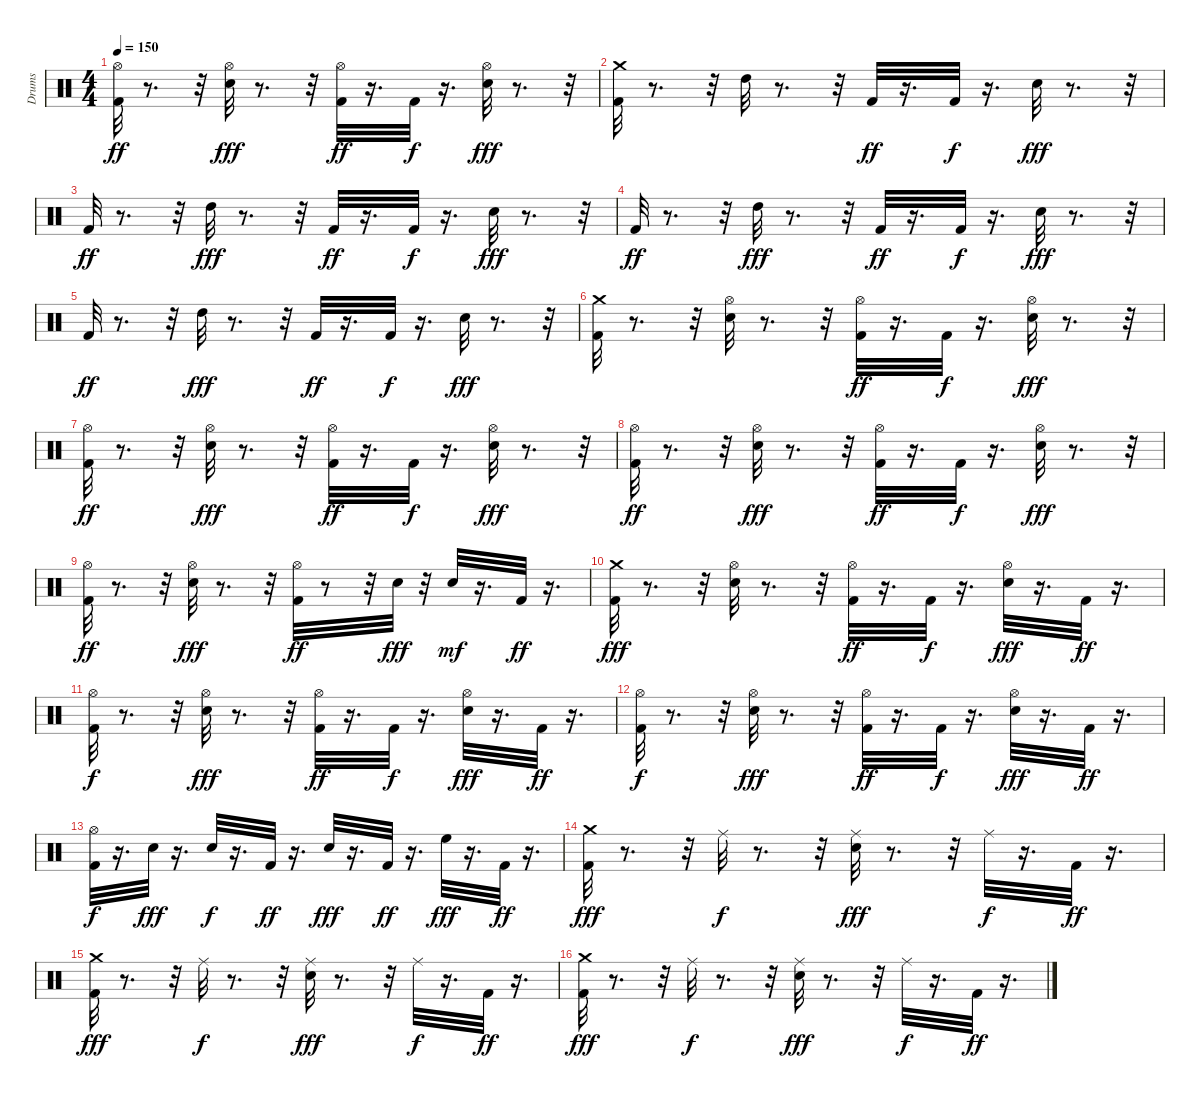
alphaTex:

\track ("Drums" "Drums") {instrument percussion}
\staff {score}
\articulation defaults
\ts (4 4)
\tempo 150
\clef neutral
\ks c
("Kick (hit) 2" "Hi-Hat (open)").32{dy ff} r.8{d} r.32 ("Snare (hit) 2" "Hi-Hat (open)").32{dy fff} r.8{d} r.32 ("Kick (hit) 2" "Hi-Hat (open)").32{dy ff} r.16{d} "Kick (hit) 2".32{dy f} r.16{d} ("Snare (hit) 2" "Hi-Hat (open)").32{dy fff} r.8{d} r.32 |
("Kick (hit) 2" "Crash medium (hit)").32 r.8{d} r.32 "High Tom (hit)".32 r.8{d} r.32 "Kick (hit) 2".32{dy ff} r.16{d} "Kick (hit) 2".32{dy f} r.16{d} "Snare (hit) 2".32{dy fff} r.8{d} r.32 |
"Kick (hit) 2".32{dy ff} r.8{d} r.32 "High Tom (hit)".32{dy fff} r.8{d} r.32 "Kick (hit) 2".32{dy ff} r.16{d} "Kick (hit) 2".32{dy f} r.16{d} "Snare (hit) 2".32{dy fff} r.8{d} r.32 |
"Kick (hit) 2".32{dy ff} r.8{d} r.32 "High Tom (hit)".32{dy fff} r.8{d} r.32 "Kick (hit) 2".32{dy ff} r.16{d} "Kick (hit) 2".32{dy f} r.16{d} "Snare (hit) 2".32{dy fff} r.8{d} r.32 |
"Kick (hit) 2".32{dy ff} r.8{d} r.32 "High Tom (hit)".32{dy fff} r.8{d} r.32 "Kick (hit) 2".32{dy ff} r.16{d} "Kick (hit) 2".32{dy f} r.16{d} "Snare (hit) 2".32{dy fff} r.8{d} r.32 |
("Kick (hit) 2" "Crash medium (hit)").32 r.8{d} r.32 ("Snare (hit) 2" "Hi-Hat (open)").32 r.8{d} r.32 ("Kick (hit) 2" "Hi-Hat (open)").32{dy ff} r.16{d} "Kick (hit) 2".32{dy f} r.16{d} ("Snare (hit) 2" "Hi-Hat (open)").32{dy fff} r.8{d} r.32 |
("Kick (hit) 2" "Hi-Hat (open)").32{dy ff} r.8{d} r.32 ("Snare (hit) 2" "Hi-Hat (open)").32{dy fff} r.8{d} r.32 ("Kick (hit) 2" "Hi-Hat (open)").32{dy ff} r.16{d} "Kick (hit) 2".32{dy f} r.16{d} ("Snare (hit) 2" "Hi-Hat (open)").32{dy fff} r.8{d} r.32 |
("Kick (hit) 2" "Hi-Hat (open)").32{dy ff} r.8{d} r.32 ("Snare (hit) 2" "Hi-Hat (open)").32{dy fff} r.8{d} r.32 ("Kick (hit) 2" "Hi-Hat (open)").32{dy ff} r.16{d} "Kick (hit) 2".32{dy f} r.16{d} ("Snare (hit) 2" "Hi-Hat (open)").32{dy fff} r.8{d} r.32 |
("Kick (hit) 2" "Hi-Hat (open)").32{dy ff} r.8{d} r.32 ("Snare (hit) 2" "Hi-Hat (open)").32{dy fff} r.8{d} r.32 ("Kick (hit) 2" "Hi-Hat (open)").32{dy ff} r.8 r.32 "Snare (hit) 2".32{dy fff} r.32 "Snare (hit) 2".32{dy mf} r.16{d} "Kick (hit) 2".32{dy ff} r.16{d} |
("Kick (hit) 2" "Crash medium (hit)").32{dy fff} r.8{d} r.32 ("Snare (hit) 2" "Hi-Hat (open)").32 r.8{d} r.32 ("Kick (hit) 2" "Hi-Hat (open)").32{dy ff} r.16{d} "Kick (hit) 2".32{dy f} r.16{d} ("Snare (hit) 2" "Hi-Hat (open)").32{dy fff} r.16{d} "Kick (hit) 2".32{dy ff} r.16{d} |
("Kick (hit) 2" "Hi-Hat (open)").32{dy f} r.8{d} r.32 ("Snare (hit) 2" "Hi-Hat (open)").32{dy fff} r.8{d} r.32 ("Kick (hit) 2" "Hi-Hat (open)").32{dy ff} r.16{d} "Kick (hit) 2".32{dy f} r.16{d} ("Snare (hit) 2" "Hi-Hat (open)").32{dy fff} r.16{d} "Kick (hit) 2".32{dy ff} r.16{d} |
("Kick (hit) 2" "Hi-Hat (open)").32{dy f} r.8{d} r.32 ("Snare (hit) 2" "Hi-Hat (open)").32{dy fff} r.8{d} r.32 ("Kick (hit) 2" "Hi-Hat (open)").32{dy ff} r.16{d} "Kick (hit) 2".32{dy f} r.16{d} ("Snare (hit) 2" "Hi-Hat (open)").32{dy fff} r.16{d} "Kick (hit) 2".32{dy ff} r.16{d} |
("Kick (hit) 2" "Hi-Hat (open)").32{dy f} r.16{d} "Snare (hit) 2".32{dy fff} r.16{d} "Snare (hit) 2".32{dy f} r.16{d} "Kick (hit) 2".32{dy ff} r.16{d} "Snare (hit) 2".32{dy fff} r.16{d} "Kick (hit) 2".32{dy ff} r.16{d} "High Floor Tom (hit)".32{dy fff} r.16{d} "Kick (hit) 2".32{dy ff} r.16{d} |
("Kick (hit) 2" "Crash medium (hit)").32{dy fff} r.8{d} r.32 "Ride (middle)".32{dy f} r.8{d} r.32 ("Snare (hit) 2" "Ride (middle)").32{dy fff} r.8{d} r.32 "Ride (middle)".32{dy f} r.16{d} "Kick (hit) 2".32{dy ff} r.16{d} |
("Kick (hit) 2" "Crash medium (hit)").32{dy fff} r.8{d} r.32 "Ride (middle)".32{dy f} r.8{d} r.32 ("Snare (hit) 2" "Ride (middle)").32{dy fff} r.8{d} r.32 "Ride (middle)".32{dy f} r.16{d} "Kick (hit) 2".32{dy ff} r.16{d} |
("Kick (hit) 2" "Crash medium (hit)").32{dy fff} r.8{d} r.32 "Ride (middle)".32{dy f} r.8{d} r.32 ("Snare (hit) 2" "Ride (middle)").32{dy fff} r.8{d} r.32 "Ride (middle)".32{dy f} r.16{d} "Kick (hit) 2".32{dy ff} r.16{d}
